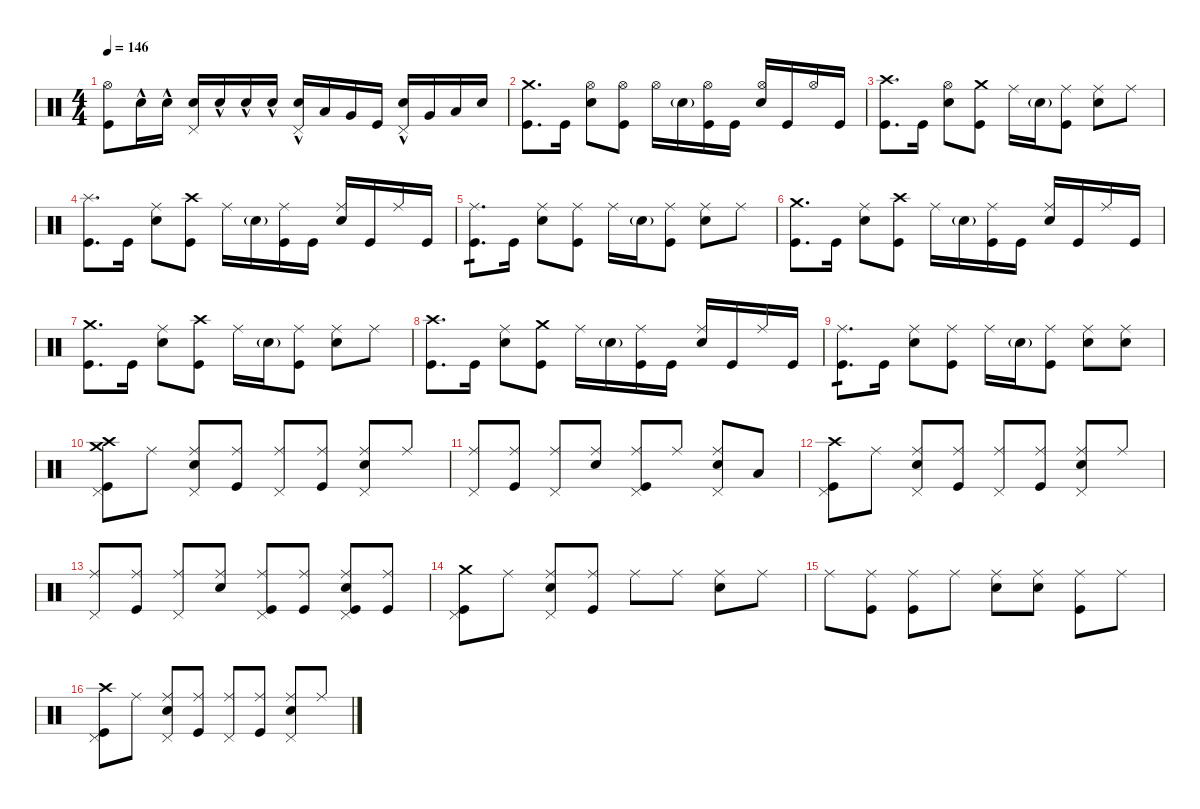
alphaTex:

\defaultSystemsLayout 4
\hideDynamics
\bracketExtendMode nobrackets
\singleTrackTrackNamePolicy hidden
\multiTrackTrackNamePolicy hidden
\firstSystemTrackNameMode fullname
\firstSystemTrackNameOrientation horizontal
\otherSystemsTrackNameOrientation horizontal
\track ("Drums" "drm.") {instrument percussion}
\staff {score}
\articulation defaults
\ts (4 4)
\tempo 146
\clef neutral
\ks c
("Hi-Hat (open)" "Kick (hit)").8{dy f beam Down} "Snare (hit) 2"{hac}.16{beam Down} "Snare (hit) 2"{hac}.16{beam Down} ("Pedal Hi-Hat (hit)" "Snare (hit) 2").16{beam Up} "Snare (hit) 2"{hac}.16{beam Up} "Snare (hit) 2"{hac}.16{beam Up} "Snare (hit) 2"{hac}.16{beam Up} ("Pedal Hi-Hat (hit)" "Snare (hit) 2"{hac}).16{beam Up} "Low Tom (hit)".16{beam Up} "Very Low Tom (hit)".16{beam Up} "Kick (hit)".16{beam Up} ("Pedal Hi-Hat (hit)" "Snare (hit) 2"{hac}).16{beam Up} "Very Low Tom (hit)".16{beam Up} "Low Floor Tom (hit)".16{beam Up} "Snare (hit) 2".16{beam Up} |
("Crash medium (hit)" "Kick (hit)").8{d beam Down} "Kick (hit)".16{beam Down} ("Hi-Hat (open)" "Snare (hit) 2").8{beam Down} ("Hi-Hat (open)" "Kick (hit)").8{beam Down} "Hi-Hat (open)".16{beam Down} "Snare (hit) 2"{g}.16{dy mf beam Down} ("Hi-Hat (open)" "Kick (hit)").16{dy f beam Down} "Kick (hit)".16{beam Down} ("Hi-Hat (open)" "Snare (hit) 2").16{beam Up} "Kick (hit)".16{beam Up} "Hi-Hat (open)".16{beam Up} "Kick (hit)".16{beam Up} |
("Crash high (hit)" "Kick (hit)").8{d beam Down} "Kick (hit)".16{beam Down} ("Hi-Hat (open)" "Snare (hit) 2").8{beam Down} ("Crash medium (hit)" "Kick (hit)").8{beam Down} "Ride (middle)".16{beam Down} "Snare (hit) 2"{g}.16{dy mf beam Down} ("Ride (middle)" "Kick (hit)").8{dy f beam Down} ("Ride (middle)" "Snare (hit) 2").8{beam Down} "Ride (middle)".8{beam Down} |
("Splash (hit)" "Kick (hit)").8{d beam Down} "Kick (hit)".16{beam Down} ("Ride (middle)" "Snare (hit) 2").8{beam Down} ("Crash high (hit)" "Kick (hit)").8{beam Down} "Ride (middle)".16{beam Down} "Snare (hit) 2"{g}.16{dy mf beam Down} ("Ride (middle)" "Kick (hit)").16{dy f beam Down} "Kick (hit)".16{beam Down} ("Ride (middle)" "Snare (hit) 2").16{beam Up} "Kick (hit)".16{beam Up} "Ride (middle)".16{beam Up} "Kick (hit)".16{beam Up} |
("Ride (middle)" "Kick (hit)").8{d tp 1 beam Down} "Kick (hit)".16{beam Down} ("Ride (middle)" "Snare (hit) 2").8{beam Down} ("Ride (middle)" "Kick (hit)").8{beam Down} "Ride (middle)".16{beam Down} "Snare (hit) 2"{g}.16{dy mf beam Down} ("Ride (middle)" "Kick (hit)").8{dy f beam Down} ("Ride (middle)" "Snare (hit) 2").8{beam Down} "Ride (middle)".8{beam Down} |
("Crash medium (hit)" "Kick (hit)").8{d beam Down} "Kick (hit)".16{beam Down} ("Ride (middle)" "Snare (hit) 2").8{beam Down} ("Crash high (hit)" "Kick (hit)").8{beam Down} "Ride (middle)".16{beam Down} "Snare (hit) 2"{g}.16{dy mf beam Down} ("Ride (middle)" "Kick (hit)").16{dy f beam Down} "Kick (hit)".16{beam Down} ("Ride (middle)" "Snare (hit) 2").16{beam Up} "Kick (hit)".16{beam Up} "Ride (middle)".16{beam Up} "Kick (hit)".16{beam Up} |
("Crash medium (hit)" "Kick (hit)").8{d beam Down} "Kick (hit)".16{beam Down} ("Ride (middle)" "Snare (hit) 2").8{beam Down} ("Crash high (hit)" "Kick (hit)").8{beam Down} "Ride (middle)".16{beam Down} "Snare (hit) 2"{g}.16{dy mf beam Down} ("Ride (middle)" "Kick (hit)").8{dy f beam Down} ("Ride (middle)" "Snare (hit) 2").8{beam Down} "Ride (middle)".8{beam Down} |
("Crash high (hit)" "Kick (hit)").8{d beam Down} "Kick (hit)".16{beam Down} ("Ride (middle)" "Snare (hit) 2").8{beam Down} ("Crash medium (hit)" "Kick (hit)").8{beam Down} "Ride (middle)".16{beam Down} "Snare (hit) 2"{g}.16{dy mf beam Down} ("Ride (middle)" "Kick (hit)").16{dy f beam Down} "Kick (hit)".16{beam Down} ("Ride (middle)" "Snare (hit) 2").16{beam Up} "Kick (hit)".16{beam Up} "Ride (middle)".16{beam Up} "Kick (hit)".16{beam Up} |
("Ride (middle)" "Kick (hit)").8{d tp 1 beam Down} "Kick (hit)".16{beam Down} ("Ride (middle)" "Snare (hit) 2").8{beam Down} ("Ride (middle)" "Kick (hit)").8{beam Down} "Ride (middle)".16{beam Down} "Snare (hit) 2"{g}.16{dy mf beam Down} ("Ride (middle)" "Kick (hit)").8{dy f beam Down} ("Ride (middle)" "Snare (hit) 2").8{beam Down} ("Ride (middle)" "Snare (hit) 2").8{beam Down} |
("Crash medium (hit)" "Crash high (hit)" "Pedal Hi-Hat (hit)" "Kick (hit)").8{beam Down} "Ride (middle)".8{beam Down} ("Ride (middle)" "Pedal Hi-Hat (hit)" "Snare (hit) 2").8{beam Up} ("Ride (middle)" "Kick (hit)").8{beam Up} ("Ride (middle)" "Pedal Hi-Hat (hit)").8{beam Up} ("Ride (middle)" "Kick (hit)").8{beam Up} ("Ride (middle)" "Pedal Hi-Hat (hit)" "Snare (hit) 2").8{beam Up} "Ride (middle)".8{beam Up} |
("Ride (middle)" "Pedal Hi-Hat (hit)").8{beam Up} ("Ride (middle)" "Kick (hit)").8{beam Up} ("Ride (middle)" "Pedal Hi-Hat (hit)").8{beam Up} ("Ride (middle)" "Snare (hit) 2").8{beam Up} ("Ride (middle)" "Pedal Hi-Hat (hit)" "Kick (hit)").8{beam Up} "Ride (middle)".8{beam Up} ("Ride (middle)" "Pedal Hi-Hat (hit)" "Snare (hit) 2").8{beam Up} "Low Tom (hit)".8{beam Up} |
("Crash high (hit)" "Pedal Hi-Hat (hit)" "Kick (hit)").8{beam Down} "Ride (middle)".8{beam Down} ("Ride (middle)" "Pedal Hi-Hat (hit)" "Snare (hit) 2").8{beam Up} ("Ride (middle)" "Kick (hit)").8{beam Up} ("Ride (middle)" "Pedal Hi-Hat (hit)").8{beam Up} ("Ride (middle)" "Kick (hit)").8{beam Up} ("Ride (middle)" "Pedal Hi-Hat (hit)" "Snare (hit) 2").8{beam Up} "Ride (middle)".8{beam Up} |
("Ride (middle)" "Pedal Hi-Hat (hit)").8{beam Up} ("Ride (middle)" "Kick (hit)").8{beam Up} ("Ride (middle)" "Pedal Hi-Hat (hit)").8{beam Up} ("Ride (middle)" "Snare (hit) 2").8{beam Up} ("Ride (middle)" "Pedal Hi-Hat (hit)" "Kick (hit)").8{beam Up} ("Ride (middle)" "Kick (hit)").8{beam Up} ("Ride (middle)" "Pedal Hi-Hat (hit)" "Snare (hit) 2" "Kick (hit)").8{beam Up} ("Ride (middle)" "Kick (hit)").8{beam Up} |
("Crash medium (hit)" "Pedal Hi-Hat (hit)" "Kick (hit)").8{beam Down} "Ride (middle)".8{beam Down} ("Ride (middle)" "Pedal Hi-Hat (hit)" "Snare (hit) 2").8{beam Up} ("Ride (middle)" "Kick (hit)").8{beam Up} "Ride (middle)".8{beam Down} "Ride (middle)".8{beam Down} ("Ride (middle)" "Snare (hit) 2").8{beam Down} "Ride (middle)".8{beam Down} |
"Ride (middle)".8{beam Down} ("Ride (middle)" "Kick (hit)").8{beam Down} ("Ride (middle)" "Kick (hit)").8{beam Down} "Ride (middle)".8{beam Down} ("Ride (middle)" "Snare (hit) 2").8{beam Down} ("Ride (middle)" "Snare (hit) 2").8{beam Down} ("Ride (middle)" "Kick (hit)").8{beam Down} "Ride (middle)".8{beam Down} |
("Crash high (hit)" "Pedal Hi-Hat (hit)" "Kick (hit)").8{beam Down} "Ride (middle)".8{beam Down} ("Ride (middle)" "Pedal Hi-Hat (hit)" "Snare (hit) 2").8{beam Up} ("Ride (middle)" "Kick (hit)").8{beam Up} ("Ride (middle)" "Pedal Hi-Hat (hit)").8{beam Up} ("Ride (middle)" "Kick (hit)").8{beam Up} ("Ride (middle)" "Pedal Hi-Hat (hit)" "Snare (hit) 2").8{beam Up} "Ride (middle)".8{beam Up}
